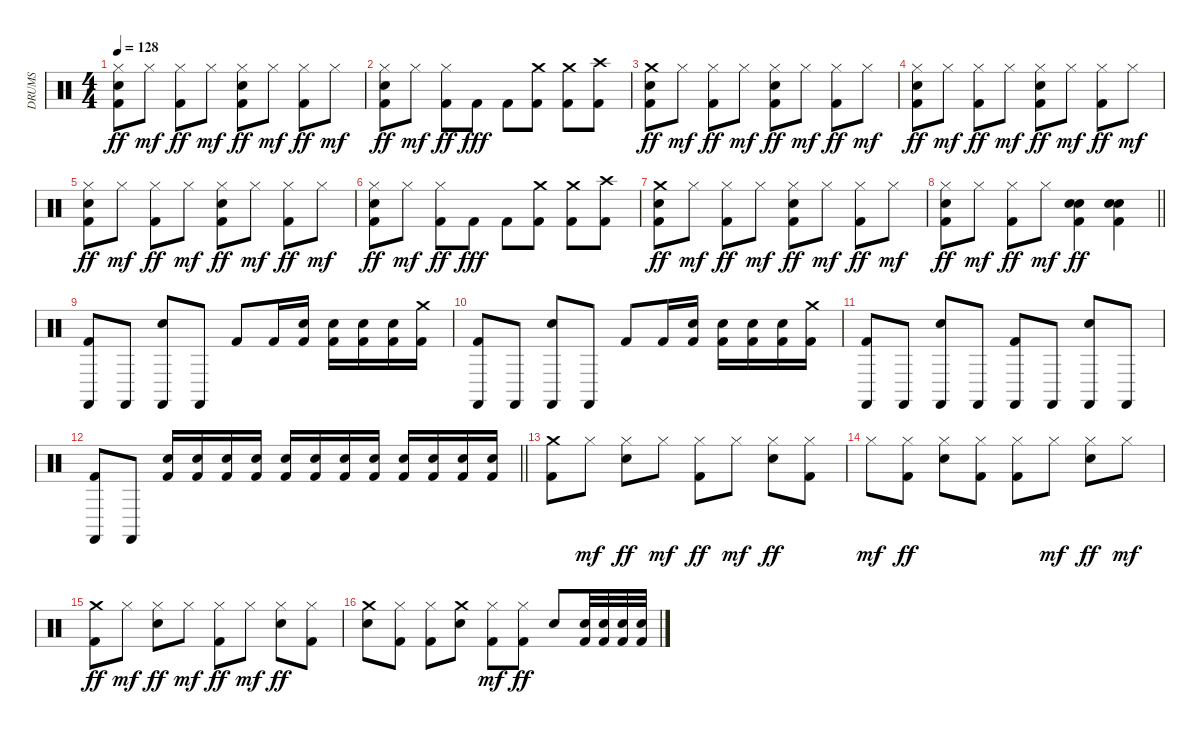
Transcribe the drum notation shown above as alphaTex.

\track ("DRUMS" "DRUMS") {instrument percussion}
\staff {score}
\articulation defaults
\ts (4 4)
\tempo 128
\clef neutral
\ks c
("Hi-Hat (closed)" "Snare (hit) 2" "Kick (hit) 2").8{dy ff} "Hi-Hat (closed)".8{dy mf} ("Hi-Hat (closed)" "Kick (hit) 2").8{dy ff} "Hi-Hat (closed)".8{dy mf} ("Hi-Hat (closed)" "Snare (hit) 2" "Kick (hit) 2").8{dy ff} "Hi-Hat (closed)".8{dy mf} ("Hi-Hat (closed)" "Kick (hit) 2").8{dy ff} "Hi-Hat (closed)".8{dy mf} |
("Hi-Hat (closed)" "Snare (hit) 2" "Kick (hit) 2").8{dy ff} "Hi-Hat (closed)".8{dy mf} ("Hi-Hat (closed)" "Kick (hit) 2").8{dy ff} "Kick (hit) 2".8{dy fff} "Kick (hit) 2".8 ("Crash medium (hit)" "Kick (hit) 2").8 ("Crash medium (hit)" "Kick (hit) 2").8 ("Crash high (hit)" "Kick (hit) 2").8 |
("Crash medium (hit)" "Snare (hit) 2" "Kick (hit) 2").8{dy ff} "Hi-Hat (closed)".8{dy mf} ("Hi-Hat (closed)" "Kick (hit) 2").8{dy ff} "Hi-Hat (closed)".8{dy mf} ("Hi-Hat (closed)" "Snare (hit) 2" "Kick (hit) 2").8{dy ff} "Hi-Hat (closed)".8{dy mf} ("Hi-Hat (closed)" "Kick (hit) 2").8{dy ff} "Hi-Hat (closed)".8{dy mf} |
("Hi-Hat (closed)" "Snare (hit) 2" "Kick (hit) 2").8{dy ff} "Hi-Hat (closed)".8{dy mf} ("Hi-Hat (closed)" "Kick (hit) 2").8{dy ff} "Hi-Hat (closed)".8{dy mf} ("Hi-Hat (closed)" "Snare (hit) 2" "Kick (hit) 2").8{dy ff} "Hi-Hat (closed)".8{dy mf} ("Hi-Hat (closed)" "Kick (hit) 2").8{dy ff} "Hi-Hat (closed)".8{dy mf} |
("Hi-Hat (closed)" "Snare (hit) 2" "Kick (hit) 2").8{dy ff} "Hi-Hat (closed)".8{dy mf} ("Hi-Hat (closed)" "Kick (hit) 2").8{dy ff} "Hi-Hat (closed)".8{dy mf} ("Hi-Hat (closed)" "Snare (hit) 2" "Kick (hit) 2").8{dy ff} "Hi-Hat (closed)".8{dy mf} ("Hi-Hat (closed)" "Kick (hit) 2").8{dy ff} "Hi-Hat (closed)".8{dy mf} |
("Hi-Hat (closed)" "Snare (hit) 2" "Kick (hit) 2").8{dy ff} "Hi-Hat (closed)".8{dy mf} ("Hi-Hat (closed)" "Kick (hit) 2").8{dy ff} "Kick (hit) 2".8{dy fff} "Kick (hit) 2".8 ("Crash medium (hit)" "Kick (hit) 2").8 ("Crash medium (hit)" "Kick (hit) 2").8 ("Crash high (hit)" "Kick (hit) 2").8 |
("Crash medium (hit)" "Snare (hit) 2" "Kick (hit) 2").8{dy ff} "Hi-Hat (closed)".8{dy mf} ("Hi-Hat (closed)" "Kick (hit) 2").8{dy ff} "Hi-Hat (closed)".8{dy mf} ("Hi-Hat (closed)" "Snare (hit) 2" "Kick (hit) 2").8{dy ff} "Hi-Hat (closed)".8{dy mf} ("Hi-Hat (closed)" "Kick (hit) 2").8{dy ff} "Hi-Hat (closed)".8{dy mf} |
\barLineRight lightlight
("Hi-Hat (closed)" "Snare (hit) 2" "Kick (hit) 2").8{dy ff} "Hi-Hat (closed)".8{dy mf} ("Hi-Hat (closed)" "Kick (hit) 2").8{dy ff} "Hi-Hat (closed)".8{dy mf} ("Electric Snare (hit)" "Snare (hit) 2" "Kick (hit) 2").4{dy ff} ("Electric Snare (hit)" "Snare (hit) 2" "Kick (hit) 2").4 |
("Castanets (hit)" "Kick (hit) 2").8 "Castanets (hit)".8 ("Castanets (hit)" "Snare (hit) 2").8 "Castanets (hit)".8 "Kick (hit) 2".8 "Kick (hit) 2".16 ("Snare (hit) 2" "Kick (hit) 2").16 ("Snare (hit) 2" "Kick (hit) 2").16 ("Snare (hit) 2" "Kick (hit) 2").16 ("Snare (hit) 2" "Kick (hit) 2").16 ("Crash medium (hit)" "Kick (hit) 2").16 |
("Castanets (hit)" "Kick (hit) 2").8 "Castanets (hit)".8 ("Castanets (hit)" "Snare (hit) 2").8 "Castanets (hit)".8 "Kick (hit) 2".8 "Kick (hit) 2".16 ("Snare (hit) 2" "Kick (hit) 2").16 ("Snare (hit) 2" "Kick (hit) 2").16 ("Snare (hit) 2" "Kick (hit) 2").16 ("Snare (hit) 2" "Kick (hit) 2").16 ("Crash medium (hit)" "Kick (hit) 2").16 |
("Castanets (hit)" "Kick (hit) 2").8 "Castanets (hit)".8 ("Castanets (hit)" "Snare (hit) 2").8 "Castanets (hit)".8 ("Castanets (hit)" "Kick (hit) 2").8 "Castanets (hit)".8 ("Castanets (hit)" "Snare (hit) 2").8 "Castanets (hit)".8 |
\barLineRight lightlight
("Castanets (hit)" "Kick (hit) 2").8 "Castanets (hit)".8 ("Snare (hit) 2" "Kick (hit) 2").16 ("Snare (hit) 2" "Kick (hit) 2").16 ("Snare (hit) 2" "Kick (hit) 2").16 ("Snare (hit) 2" "Kick (hit) 2").16 ("Snare (hit) 2" "Kick (hit) 2").16 ("Snare (hit) 2" "Kick (hit) 2").16 ("Snare (hit) 2" "Kick (hit) 2").16 ("Snare (hit) 2" "Kick (hit) 2").16 ("Snare (hit) 2" "Kick (hit) 2").16 ("Snare (hit) 2" "Kick (hit) 2").16 ("Snare (hit) 2" "Kick (hit) 2").16 ("Snare (hit) 2" "Kick (hit) 2").16 |
("Crash medium (hit)" "Kick (hit) 2").8 "Hi-Hat (closed)".8{dy mf} ("Hi-Hat (closed)" "Snare (hit) 2").8{dy ff} "Hi-Hat (closed)".8{dy mf} ("Hi-Hat (closed)" "Kick (hit) 2").8{dy ff} "Hi-Hat (closed)".8{dy mf} ("Hi-Hat (closed)" "Snare (hit) 2").8{dy ff} ("Hi-Hat (closed)" "Kick (hit) 2").8 |
"Hi-Hat (closed)".8{dy mf} ("Hi-Hat (closed)" "Kick (hit) 2").8{dy ff} ("Hi-Hat (closed)" "Snare (hit) 2").8 ("Hi-Hat (closed)" "Kick (hit) 2").8 ("Hi-Hat (closed)" "Kick (hit) 2").8 "Hi-Hat (closed)".8{dy mf} ("Hi-Hat (closed)" "Snare (hit) 2").8{dy ff} "Hi-Hat (closed)".8{dy mf} |
("Crash medium (hit)" "Kick (hit) 2").8{dy ff} "Hi-Hat (closed)".8{dy mf} ("Hi-Hat (closed)" "Snare (hit) 2").8{dy ff} "Hi-Hat (closed)".8{dy mf} ("Hi-Hat (closed)" "Kick (hit) 2").8{dy ff} "Hi-Hat (closed)".8{dy mf} ("Hi-Hat (closed)" "Snare (hit) 2").8{dy ff} ("Hi-Hat (closed)" "Kick (hit) 2").8 |
("Crash medium (hit)" "Snare (hit) 2").8 ("Hi-Hat (closed)" "Kick (hit) 2").8 ("Hi-Hat (closed)" "Kick (hit) 2").8 ("Crash medium (hit)" "Snare (hit) 2").8 ("Hi-Hat (closed)" "Kick (hit) 2").8{dy mf} ("Hi-Hat (closed)" "Kick (hit) 2").8{dy ff} "Snare (hit) 2".8 ("Snare (hit) 2" "Kick (hit) 2").32 ("Snare (hit) 2" "Kick (hit) 2").32 ("Snare (hit) 2" "Kick (hit) 2").32 ("Snare (hit) 2" "Kick (hit) 2").32
